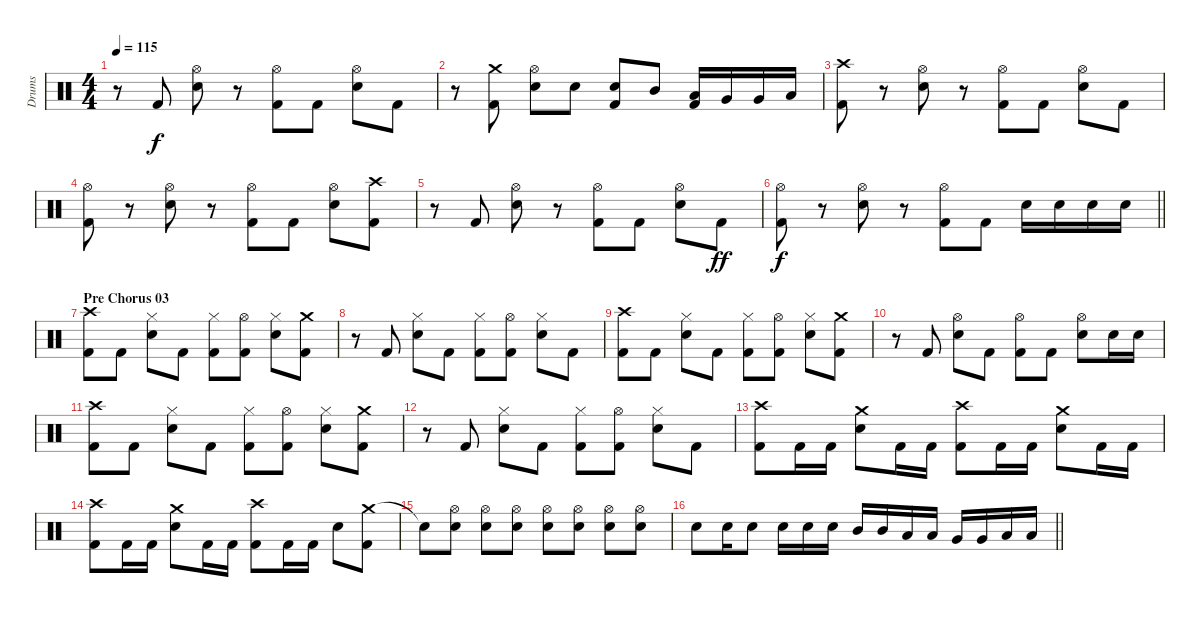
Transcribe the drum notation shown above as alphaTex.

\track ("Drums" "Drums") {instrument percussion}
\staff {score}
\articulation defaults
\ts (4 4)
\tempo 115
\clef neutral
\ks c
r.8{dy f} "Kick (hit) 2".8 ("Hi-Hat (open)" "Snare (hit) 2").8 r.8 ("Hi-Hat (open)" "Kick (hit) 2").8 "Kick (hit) 2".8 ("Hi-Hat (open)" "Snare (hit) 2").8 "Kick (hit) 2".8 |
r.8 ("Crash medium (hit)" "Kick (hit) 2").8 ("Hi-Hat (open)" "Snare (hit) 2").8 "Snare (hit) 2".8 ("Snare (hit) 2" "Kick (hit) 2").8 "Mid Tom (hit)".8 ("Low Tom (hit)" "Kick (hit) 2").16 "Very Low Tom (hit)".16 "Very Low Tom (hit)".16 "Low Floor Tom (hit)".16 |
("Crash high (hit)" "Kick (hit) 2").8 r.8 ("Hi-Hat (open)" "Snare (hit) 2").8 r.8 ("Hi-Hat (open)" "Kick (hit) 2").8 "Kick (hit) 2".8 ("Hi-Hat (open)" "Snare (hit) 2").8 "Kick (hit) 2".8 |
("Hi-Hat (open)" "Kick (hit) 2").8 r.8 ("Hi-Hat (open)" "Snare (hit) 2").8 r.8 ("Hi-Hat (open)" "Kick (hit) 2").8 "Kick (hit) 2".8 ("Hi-Hat (open)" "Snare (hit) 2").8 ("Crash high (hit)" "Kick (hit) 2").8 |
r.8 "Kick (hit) 2".8 ("Hi-Hat (open)" "Snare (hit) 2").8 r.8 ("Hi-Hat (open)" "Kick (hit) 2").8 "Kick (hit) 2".8 ("Hi-Hat (open)" "Snare (hit) 2").8 "Kick (hit) 2".8{dy ff} |
\barLineRight lightlight
("Hi-Hat (open)" "Kick (hit) 2").8{dy f} r.8 ("Hi-Hat (open)" "Snare (hit) 2").8 r.8 ("Hi-Hat (open)" "Kick (hit) 2").8 "Kick (hit) 2".8 "Snare (hit) 2".16 "Snare (hit) 2".16 "Snare (hit) 2".16 "Snare (hit) 2".16 |
\section ("" "Pre Chorus 03")
("Crash high (hit)" "Kick (hit) 2").8 "Kick (hit) 2".8 ("Hi-Hat (closed)" "Snare (hit) 2").8 "Kick (hit) 2".8 ("Hi-Hat (closed)" "Kick (hit) 2").8 ("Hi-Hat (open)" "Kick (hit) 2").8 ("Hi-Hat (closed)" "Snare (hit) 2").8 ("Crash medium (hit)" "Kick (hit) 2").8 |
r.8 "Kick (hit) 2".8 ("Hi-Hat (closed)" "Snare (hit) 2").8 "Kick (hit) 2".8 ("Hi-Hat (closed)" "Kick (hit) 2").8 ("Hi-Hat (open)" "Kick (hit) 2").8 ("Hi-Hat (closed)" "Snare (hit) 2").8 "Kick (hit) 2".8 |
("Crash high (hit)" "Kick (hit) 2").8 "Kick (hit) 2".8 ("Hi-Hat (closed)" "Snare (hit) 2").8 "Kick (hit) 2".8 ("Hi-Hat (closed)" "Kick (hit) 2").8 ("Hi-Hat (open)" "Kick (hit) 2").8 ("Hi-Hat (closed)" "Snare (hit) 2").8 ("Crash medium (hit)" "Kick (hit) 2").8 |
r.8 "Kick (hit) 2".8 ("Hi-Hat (open)" "Snare (hit) 2").8 "Kick (hit) 2".8 ("Hi-Hat (open)" "Kick (hit) 2").8 "Kick (hit) 2".8 ("Hi-Hat (open)" "Snare (hit) 2").8 "Snare (hit) 2".16 "Snare (hit) 2".16 |
("Crash high (hit)" "Kick (hit) 2").8 "Kick (hit) 2".8 ("Hi-Hat (closed)" "Snare (hit) 2").8 "Kick (hit) 2".8 ("Hi-Hat (closed)" "Kick (hit) 2").8 ("Hi-Hat (open)" "Kick (hit) 2").8 ("Hi-Hat (closed)" "Snare (hit) 2").8 ("Crash medium (hit)" "Kick (hit) 2").8 |
r.8 "Kick (hit) 2".8 ("Hi-Hat (closed)" "Snare (hit) 2").8 "Kick (hit) 2".8 ("Hi-Hat (closed)" "Kick (hit) 2").8 ("Hi-Hat (open)" "Kick (hit) 2").8 ("Hi-Hat (closed)" "Snare (hit) 2").8 "Kick (hit) 2".8 |
("Crash high (hit)" "Kick (hit) 2").8 "Kick (hit) 2".16 "Kick (hit) 2".16 ("Crash medium (hit)" "Snare (hit) 2").8 "Kick (hit) 2".16 "Kick (hit) 2".16 ("Crash high (hit)" "Kick (hit) 2").8 "Kick (hit) 2".16 "Kick (hit) 2".16 ("Crash medium (hit)" "Snare (hit) 2").8 "Kick (hit) 2".16 "Kick (hit) 2".16 |
("Crash high (hit)" "Kick (hit) 2").8 "Kick (hit) 2".16 "Kick (hit) 2".16 ("Crash medium (hit)" "Snare (hit) 2").8 "Kick (hit) 2".16 "Kick (hit) 2".16 ("Crash high (hit)" "Kick (hit) 2").8 "Kick (hit) 2".16 "Kick (hit) 2".16 "Snare (hit) 2".8 ("Crash medium (hit)" "Kick (hit) 2").8 |
"Snare (hit)"{t}.8 ("Hi-Hat (open)" "Snare (hit) 2").8 ("Hi-Hat (open)" "Snare (hit) 2").8 ("Hi-Hat (open)" "Snare (hit) 2").8 ("Hi-Hat (open)" "Snare (hit) 2").8 ("Hi-Hat (open)" "Snare (hit) 2").8 ("Hi-Hat (open)" "Snare (hit) 2").8 ("Hi-Hat (open)" "Snare (hit) 2").8 |
\barLineRight lightlight "Snare (hit) 2".8 "Snare (hit) 2".16 "Snare (hit) 2".8 "Snare (hit) 2".16 "Snare (hit) 2".16 "Snare (hit) 2".16 "Mid Tom (hit)".16 "Mid Tom (hit)".16 "Low Tom (hit)".16 "Low Tom (hit)".16 "Very Low Tom (hit)".16 "Very Low Tom (hit)".16 "Low Floor Tom (hit)".16 "Low Floor Tom (hit)".16
